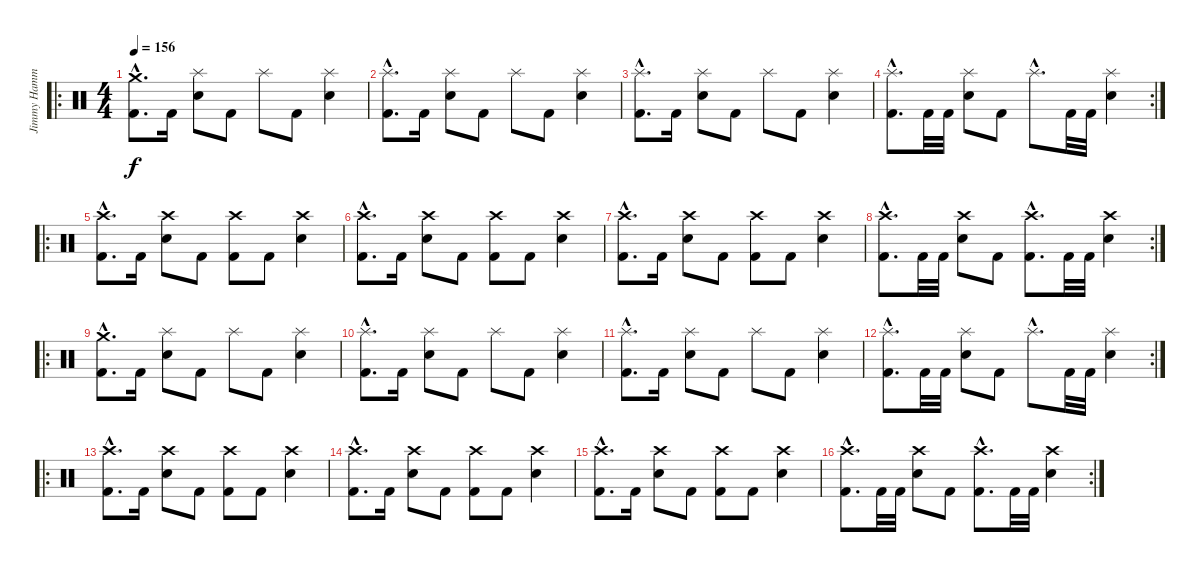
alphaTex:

\track ("Jimmy Hammer" "Jimmy Hamm") {instrument percussion}
\staff {score}
\articulation defaults
\ro
\ts (4 4)
\tempo 156
\clef neutral
\ks c
("Kick (hit) 2"{hac} "Crash medium (hit)"{hac}).8{d dy f} "Kick (hit) 2".16 ("Snare (hit) 2" "Splash (hit)").8 "Kick (hit) 2".8 "Splash (hit)".8 "Kick (hit) 2".8 ("Snare (hit) 2" "Splash (hit)").4 |
("Kick (hit) 2"{hac} "Splash (hit)"{hac}).8{d} "Kick (hit) 2".16 ("Snare (hit) 2" "Splash (hit)").8 "Kick (hit) 2".8 "Splash (hit)".8 "Kick (hit) 2".8 ("Snare (hit) 2" "Splash (hit)").4 |
("Kick (hit) 2"{hac} "Splash (hit)"{hac}).8{d} "Kick (hit) 2".16 ("Snare (hit) 2" "Splash (hit)").8 "Kick (hit) 2".8 "Splash (hit)".8 "Kick (hit) 2".8 ("Snare (hit) 2" "Splash (hit)").4 |
\rc 2
("Kick (hit) 2"{hac} "Splash (hit)"{hac}).8{d} "Kick (hit) 2".32 "Kick (hit) 2".32 ("Snare (hit) 2" "Splash (hit)").8 "Kick (hit) 2".8 "Splash (hit)"{hac}.8{d} "Kick (hit) 2".32 "Kick (hit) 2".32 ("Snare (hit) 2" "Splash (hit)").4 |
\ro
("Kick (hit) 2"{hac} "Crash high (hit)"{hac}).8{d} "Kick (hit) 2".16 ("Snare (hit) 2" "Crash high (hit)").8 "Kick (hit) 2".8 ("Kick (hit) 2" "Crash high (hit)").8 "Kick (hit) 2".8 ("Snare (hit) 2" "Crash high (hit)").4 |
("Kick (hit) 2"{hac} "Crash high (hit)"{hac}).8{d} "Kick (hit) 2".16 ("Snare (hit) 2" "Crash high (hit)").8 "Kick (hit) 2".8 ("Kick (hit) 2" "Crash high (hit)").8 "Kick (hit) 2".8 ("Snare (hit) 2" "Crash high (hit)").4 |
("Kick (hit) 2"{hac} "Crash high (hit)"{hac}).8{d} "Kick (hit) 2".16 ("Snare (hit) 2" "Crash high (hit)").8 "Kick (hit) 2".8 ("Kick (hit) 2" "Crash high (hit)").8 "Kick (hit) 2".8 ("Snare (hit) 2" "Crash high (hit)").4 |
\rc 2
("Kick (hit) 2"{hac} "Crash high (hit)"{hac}).8{d} "Kick (hit) 2".32 "Kick (hit) 2".32 ("Snare (hit) 2" "Crash high (hit)").8 "Kick (hit) 2".8 ("Kick (hit) 2" "Crash high (hit)"{hac}).8{d} "Kick (hit) 2".32 "Kick (hit) 2".32 ("Snare (hit) 2" "Crash high (hit)").4 |
\ro
("Kick (hit) 2"{hac} "Crash medium (hit)"{hac}).8{d} "Kick (hit) 2".16 ("Snare (hit) 2" "Splash (hit)").8 "Kick (hit) 2".8 "Splash (hit)".8 "Kick (hit) 2".8 ("Snare (hit) 2" "Splash (hit)").4 |
("Kick (hit) 2"{hac} "Splash (hit)"{hac}).8{d} "Kick (hit) 2".16 ("Snare (hit) 2" "Splash (hit)").8 "Kick (hit) 2".8 "Splash (hit)".8 "Kick (hit) 2".8 ("Snare (hit) 2" "Splash (hit)").4 |
("Kick (hit) 2"{hac} "Splash (hit)"{hac}).8{d} "Kick (hit) 2".16 ("Snare (hit) 2" "Splash (hit)").8 "Kick (hit) 2".8 "Splash (hit)".8 "Kick (hit) 2".8 ("Snare (hit) 2" "Splash (hit)").4 |
\rc 2
("Kick (hit) 2"{hac} "Splash (hit)"{hac}).8{d} "Kick (hit) 2".32 "Kick (hit) 2".32 ("Snare (hit) 2" "Splash (hit)").8 "Kick (hit) 2".8 "Splash (hit)"{hac}.8{d} "Kick (hit) 2".32 "Kick (hit) 2".32 ("Snare (hit) 2" "Splash (hit)").4 |
\ro
("Kick (hit) 2"{hac} "Crash high (hit)"{hac}).8{d} "Kick (hit) 2".16 ("Snare (hit) 2" "Crash high (hit)").8 "Kick (hit) 2".8 ("Kick (hit) 2" "Crash high (hit)").8 "Kick (hit) 2".8 ("Snare (hit) 2" "Crash high (hit)").4 |
("Kick (hit) 2"{hac} "Crash high (hit)"{hac}).8{d} "Kick (hit) 2".16 ("Snare (hit) 2" "Crash high (hit)").8 "Kick (hit) 2".8 ("Kick (hit) 2" "Crash high (hit)").8 "Kick (hit) 2".8 ("Snare (hit) 2" "Crash high (hit)").4 |
("Kick (hit) 2"{hac} "Crash high (hit)"{hac}).8{d} "Kick (hit) 2".16 ("Snare (hit) 2" "Crash high (hit)").8 "Kick (hit) 2".8 ("Kick (hit) 2" "Crash high (hit)").8 "Kick (hit) 2".8 ("Snare (hit) 2" "Crash high (hit)").4 |
\rc 2
("Kick (hit) 2"{hac} "Crash high (hit)"{hac}).8{d} "Kick (hit) 2".32 "Kick (hit) 2".32 ("Snare (hit) 2" "Crash high (hit)").8 "Kick (hit) 2".8 ("Kick (hit) 2" "Crash high (hit)"{hac}).8{d} "Kick (hit) 2".32 "Kick (hit) 2".32 ("Snare (hit) 2" "Crash high (hit)").4
